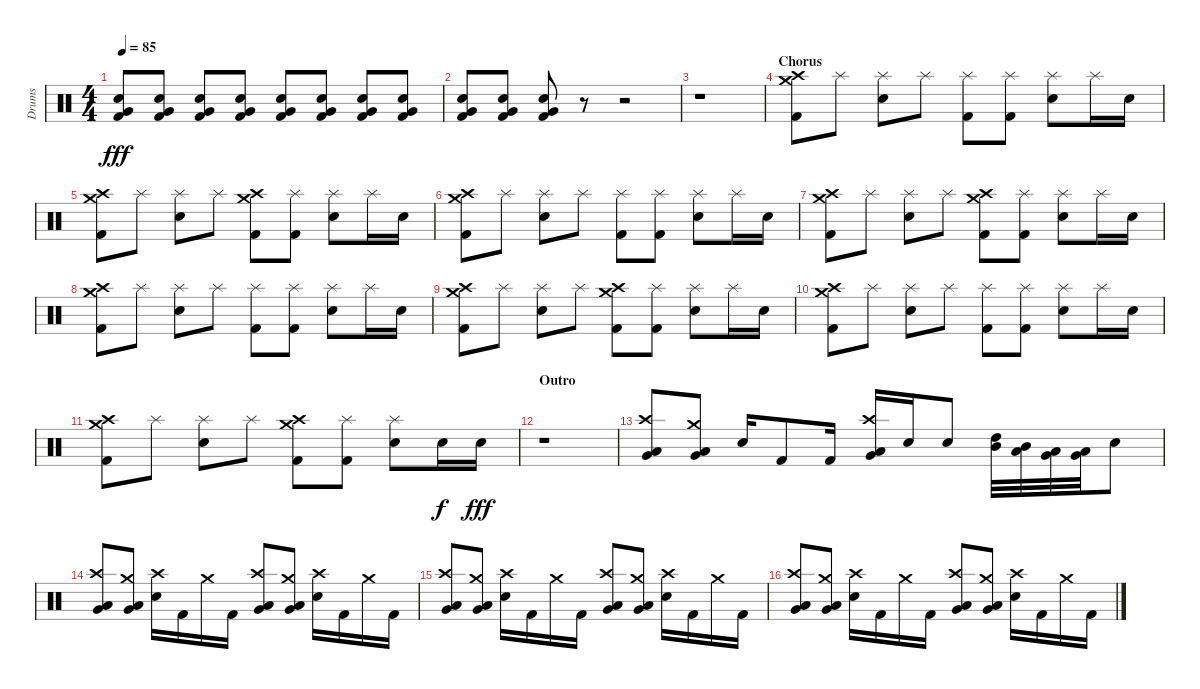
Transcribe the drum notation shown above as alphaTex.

\track ("Drums" "Drums") {instrument percussion}
\staff {score}
\articulation defaults
\ts (4 4)
\tempo 85
\clef neutral
\ks c
("Very Low Tom (hit)" "Electric Snare (hit)" "Kick (hit) 2").8{dy fff} ("Very Low Tom (hit)" "Electric Snare (hit)" "Kick (hit) 2").8 ("Very Low Tom (hit)" "Electric Snare (hit)" "Kick (hit) 2").8 ("Very Low Tom (hit)" "Electric Snare (hit)" "Kick (hit) 2").8 ("Very Low Tom (hit)" "Electric Snare (hit)" "Kick (hit) 2").8 ("Very Low Tom (hit)" "Electric Snare (hit)" "Kick (hit) 2").8 ("Very Low Tom (hit)" "Electric Snare (hit)" "Kick (hit) 2").8 ("Very Low Tom (hit)" "Electric Snare (hit)" "Kick (hit) 2").8 |
("Very Low Tom (hit)" "Electric Snare (hit)" "Kick (hit) 2").8 ("Very Low Tom (hit)" "Electric Snare (hit)" "Kick (hit) 2").8 ("Very Low Tom (hit)" "Electric Snare (hit)" "Kick (hit) 2").8 r.8 r.2 |
r.1 |
\section ("" "Chorus")
("Crash high (hit)" "Crash medium (hit)" "Kick (hit) 2").8 "Splash (hit)".8 ("Splash (hit)" "Electric Snare (hit)").8 "Splash (hit)".8 ("Splash (hit)" "Kick (hit) 2").8 ("Splash (hit)" "Kick (hit) 2").8 ("Splash (hit)" "Electric Snare (hit)").8 "Splash (hit)".16 "Electric Snare (hit)".16 |
("Crash high (hit)" "Crash medium (hit)" "Kick (hit) 2").8 "Splash (hit)".8 ("Splash (hit)" "Electric Snare (hit)").8 "Splash (hit)".8 ("Crash high (hit)" "Crash medium (hit)" "Kick (hit) 2").8 ("Splash (hit)" "Kick (hit) 2").8 ("Splash (hit)" "Electric Snare (hit)").8 "Splash (hit)".16 "Electric Snare (hit)".16 |
("Crash high (hit)" "Crash medium (hit)" "Kick (hit) 2").8 "Splash (hit)".8 ("Splash (hit)" "Electric Snare (hit)").8 "Splash (hit)".8 ("Splash (hit)" "Kick (hit) 2").8 ("Splash (hit)" "Kick (hit) 2").8 ("Splash (hit)" "Electric Snare (hit)").8 "Splash (hit)".16 "Electric Snare (hit)".16 |
("Crash high (hit)" "Crash medium (hit)" "Kick (hit) 2").8 "Splash (hit)".8 ("Splash (hit)" "Electric Snare (hit)").8 "Splash (hit)".8 ("Crash high (hit)" "Crash medium (hit)" "Kick (hit) 2").8 ("Splash (hit)" "Kick (hit) 2").8 ("Splash (hit)" "Electric Snare (hit)").8 "Splash (hit)".16 "Electric Snare (hit)".16 |
("Crash high (hit)" "Crash medium (hit)" "Kick (hit) 2").8 "Splash (hit)".8 ("Splash (hit)" "Electric Snare (hit)").8 "Splash (hit)".8 ("Splash (hit)" "Kick (hit) 2").8 ("Splash (hit)" "Kick (hit) 2").8 ("Splash (hit)" "Electric Snare (hit)").8 "Splash (hit)".16 "Electric Snare (hit)".16 |
("Crash high (hit)" "Crash medium (hit)" "Kick (hit) 2").8 "Splash (hit)".8 ("Splash (hit)" "Electric Snare (hit)").8 "Splash (hit)".8 ("Crash high (hit)" "Crash medium (hit)" "Kick (hit) 2").8 ("Splash (hit)" "Kick (hit) 2").8 ("Splash (hit)" "Electric Snare (hit)").8 "Splash (hit)".16 "Electric Snare (hit)".16 |
("Crash high (hit)" "Crash medium (hit)" "Kick (hit) 2").8 "Splash (hit)".8 ("Splash (hit)" "Electric Snare (hit)").8 "Splash (hit)".8 ("Splash (hit)" "Kick (hit) 2").8 ("Splash (hit)" "Kick (hit) 2").8 ("Splash (hit)" "Electric Snare (hit)").8 "Splash (hit)".16 "Electric Snare (hit)".16 |
("Crash high (hit)" "Crash medium (hit)" "Kick (hit) 2").8 "Splash (hit)".8 ("Splash (hit)" "Electric Snare (hit)").8 "Splash (hit)".8 ("Crash high (hit)" "Crash medium (hit)" "Kick (hit) 2").8 ("Splash (hit)" "Kick (hit) 2").8 ("Splash (hit)" "Electric Snare (hit)").8 "Electric Snare (hit)".16{dy f} "Electric Snare (hit)".16{dy fff} |
\section ("" "Outro")
r.1 |
("Crash high (hit)" "Very Low Tom (hit)" "Low Floor Tom (hit)").8 ("Crash medium (hit)" "Very Low Tom (hit)" "Low Floor Tom (hit)").8 "Electric Snare (hit)".16 "Kick (hit) 2".8 "Kick (hit) 2".16 ("Crash high (hit)" "Very Low Tom (hit)" "Low Floor Tom (hit)").16 "Electric Snare (hit)".16 "Electric Snare (hit)".8 ("High Tom (hit)" "Mid Tom (hit)").32 ("Mid Tom (hit)" "Low Tom (hit)").32 ("Low Tom (hit)" "Very Low Tom (hit)").32 ("Very Low Tom (hit)" "Low Floor Tom (hit)").32 "Electric Snare (hit)".8 |
("Crash high (hit)" "Very Low Tom (hit)" "Low Floor Tom (hit)").8 ("Crash medium (hit)" "Very Low Tom (hit)" "Low Floor Tom (hit)").8 ("Crash high (hit)" "Electric Snare (hit)").16 "Kick (hit) 2".16 "Crash medium (hit)".16 "Kick (hit) 2".16 ("Crash high (hit)" "Very Low Tom (hit)" "Low Floor Tom (hit)").8 ("Crash medium (hit)" "Very Low Tom (hit)" "Low Floor Tom (hit)").8 ("Crash high (hit)" "Electric Snare (hit)").16 "Kick (hit) 2".16 "Crash medium (hit)".16 "Kick (hit) 2".16 |
("Crash high (hit)" "Very Low Tom (hit)" "Low Floor Tom (hit)").8 ("Crash medium (hit)" "Very Low Tom (hit)" "Low Floor Tom (hit)").8 ("Crash high (hit)" "Electric Snare (hit)").16 "Kick (hit) 2".16 "Crash medium (hit)".16 "Kick (hit) 2".16 ("Crash high (hit)" "Very Low Tom (hit)" "Low Floor Tom (hit)").8 ("Crash medium (hit)" "Very Low Tom (hit)" "Low Floor Tom (hit)").8 ("Crash high (hit)" "Electric Snare (hit)").16 "Kick (hit) 2".16 "Crash medium (hit)".16 "Kick (hit) 2".16 |
("Crash high (hit)" "Very Low Tom (hit)" "Low Floor Tom (hit)").8 ("Crash medium (hit)" "Very Low Tom (hit)" "Low Floor Tom (hit)").8 ("Crash high (hit)" "Electric Snare (hit)").16 "Kick (hit) 2".16 "Crash medium (hit)".16 "Kick (hit) 2".16 ("Crash high (hit)" "Very Low Tom (hit)" "Low Floor Tom (hit)").8 ("Crash medium (hit)" "Very Low Tom (hit)" "Low Floor Tom (hit)").8 ("Crash high (hit)" "Electric Snare (hit)").16 "Kick (hit) 2".16 "Crash medium (hit)".16 "Kick (hit) 2".16
